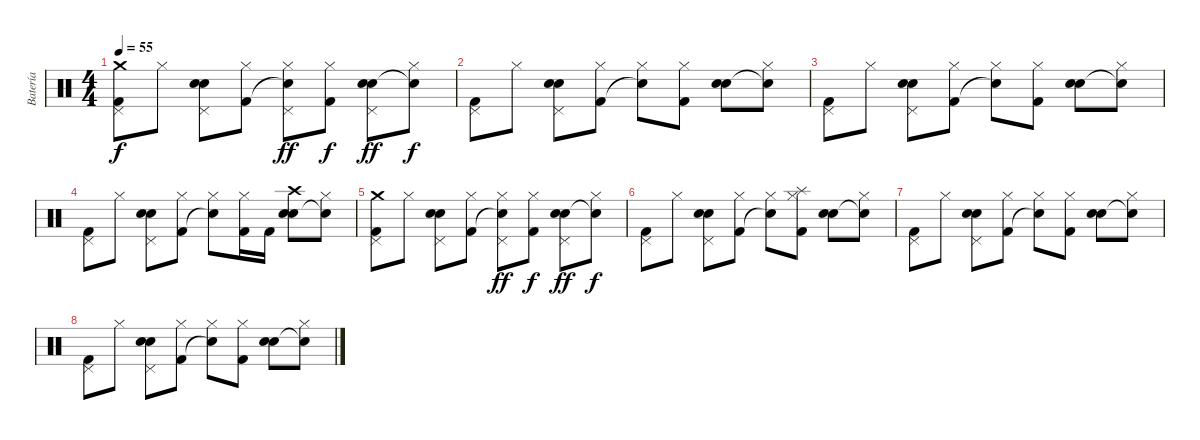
\track ("Batería" "Batería") {instrument percussion}
\staff {score}
\articulation defaults
\ts (4 4)
\tempo 55
\clef neutral
\ks c
("Crash medium (hit)" "Kick (hit) 2" "Pedal Hi-Hat (hit)").8{dy f} "Hi-Hat (closed)".8 ("Electric Snare (hit)" "Snare (hit) 2" "Pedal Hi-Hat (hit)").8 ("Kick (hit) 2" "Hi-Hat (closed)").8 ("Snare (hit)"{t} "Hi-Hat (closed)" "Pedal Hi-Hat (hit)").8{dy ff} ("Kick (hit) 2" "Hi-Hat (closed)").8{dy f} ("Electric Snare (hit)" "Snare (hit) 2" "Pedal Hi-Hat (hit)").8{dy ff} ("Snare (hit)"{t} "Hi-Hat (closed)").8{dy f} |
("Kick (hit) 2" "Pedal Hi-Hat (hit)").8 "Hi-Hat (closed)".8 ("Electric Snare (hit)" "Snare (hit) 2" "Pedal Hi-Hat (hit)").8 ("Kick (hit) 2" "Hi-Hat (closed)").8 ("Snare (hit)"{t} "Hi-Hat (closed)").8 ("Kick (hit) 2" "Hi-Hat (closed)").8 ("Electric Snare (hit)" "Snare (hit) 2").8 ("Snare (hit)"{t} "Hi-Hat (closed)").8 |
("Kick (hit) 2" "Pedal Hi-Hat (hit)").8 "Hi-Hat (closed)".8 ("Electric Snare (hit)" "Snare (hit) 2" "Pedal Hi-Hat (hit)").8 ("Kick (hit) 2" "Hi-Hat (closed)").8 ("Snare (hit)"{t} "Hi-Hat (closed)").8 ("Kick (hit) 2" "Hi-Hat (closed)").8 ("Electric Snare (hit)" "Snare (hit) 2").8 ("Snare (hit)"{t} "Hi-Hat (closed)").8 |
("Kick (hit) 2" "Pedal Hi-Hat (hit)").8 "Hi-Hat (closed)".8 ("Electric Snare (hit)" "Snare (hit) 2" "Pedal Hi-Hat (hit)").8 ("Kick (hit) 2" "Hi-Hat (closed)").8 ("Snare (hit)"{t} "Hi-Hat (closed)").8 ("Kick (hit) 2" "Hi-Hat (closed)").16 "Kick (hit) 2".16 ("Electric Snare (hit)" "Snare (hit) 2" "Crash high (hit)").8 ("Snare (hit)"{t} "Hi-Hat (closed)").8 |
("Crash medium (hit)" "Kick (hit) 2" "Pedal Hi-Hat (hit)").8 "Hi-Hat (closed)".8 ("Electric Snare (hit)" "Snare (hit) 2" "Pedal Hi-Hat (hit)").8 ("Kick (hit) 2" "Hi-Hat (closed)").8 ("Snare (hit)"{t} "Hi-Hat (closed)" "Pedal Hi-Hat (hit)").8{dy ff} ("Kick (hit) 2" "Hi-Hat (closed)").8{dy f} ("Electric Snare (hit)" "Snare (hit) 2" "Pedal Hi-Hat (hit)").8{dy ff} ("Snare (hit)"{t} "Hi-Hat (closed)").8{dy f} |
("Kick (hit) 2" "Pedal Hi-Hat (hit)").8{volume 1} "Hi-Hat (closed)".8 ("Electric Snare (hit)" "Snare (hit) 2" "Pedal Hi-Hat (hit)").8 ("Kick (hit) 2" "Hi-Hat (closed)").8 ("Snare (hit)"{t} "Hi-Hat (closed)").8 ("Kick (hit) 2" "Hi-Hat (closed)" "Splash (hit)").8 ("Electric Snare (hit)" "Snare (hit) 2").8 ("Snare (hit)"{t} "Hi-Hat (closed)").8 |
("Kick (hit) 2" "Pedal Hi-Hat (hit)").8 "Hi-Hat (closed)".8 ("Electric Snare (hit)" "Snare (hit) 2" "Pedal Hi-Hat (hit)").8 ("Kick (hit) 2" "Hi-Hat (closed)").8 ("Snare (hit)"{t} "Hi-Hat (closed)").8 ("Kick (hit) 2" "Hi-Hat (closed)").8 ("Electric Snare (hit)" "Snare (hit) 2").8 ("Snare (hit)"{t} "Hi-Hat (closed)").8 |
("Kick (hit) 2" "Pedal Hi-Hat (hit)").8 "Hi-Hat (closed)".8 ("Electric Snare (hit)" "Snare (hit) 2" "Pedal Hi-Hat (hit)").8 ("Kick (hit) 2" "Hi-Hat (closed)").8 ("Snare (hit)"{t} "Hi-Hat (closed)").8 ("Kick (hit) 2" "Hi-Hat (closed)").8 ("Electric Snare (hit)" "Snare (hit) 2").8 ("Snare (hit)"{t} "Hi-Hat (closed)").8
